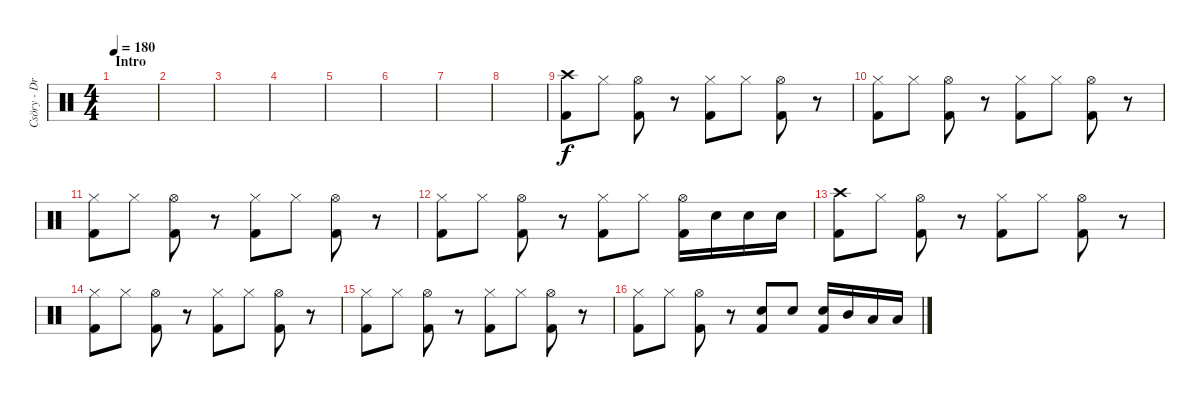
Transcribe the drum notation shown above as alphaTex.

\track ("Csöry - DrumZ" "Csöry - Dr") {instrument percussion}
\staff {score}
\articulation defaults
\ts (4 4)
\section ("" "Intro")
\tempo 180
\clef neutral
\ks c
|
|
|
|
|
|
|
|
("Crash high (hit)" "Kick (hit) 2").8 "Hi-Hat (closed)".8 ("Hi-Hat (open)" "Kick (hit) 2").8 r.8 ("Hi-Hat (closed)" "Kick (hit) 2").8 "Hi-Hat (closed)".8 ("Hi-Hat (open)" "Kick (hit) 2").8 r.8 |
("Hi-Hat (closed)" "Kick (hit) 2").8 "Hi-Hat (closed)".8 ("Hi-Hat (open)" "Kick (hit) 2").8 r.8 ("Hi-Hat (closed)" "Kick (hit) 2").8 "Hi-Hat (closed)".8 ("Hi-Hat (open)" "Kick (hit) 2").8 r.8 |
("Hi-Hat (closed)" "Kick (hit) 2").8 "Hi-Hat (closed)".8 ("Hi-Hat (open)" "Kick (hit) 2").8 r.8 ("Hi-Hat (closed)" "Kick (hit) 2").8 "Hi-Hat (closed)".8 ("Hi-Hat (open)" "Kick (hit) 2").8 r.8 |
("Hi-Hat (closed)" "Kick (hit) 2").8 "Hi-Hat (closed)".8 ("Hi-Hat (open)" "Kick (hit) 2").8 r.8 ("Hi-Hat (closed)" "Kick (hit) 2").8 "Hi-Hat (closed)".8 ("Hi-Hat (open)" "Kick (hit) 2").16 "Snare (hit) 2".16 "Snare (hit) 2".16 "Snare (hit) 2".16 |
("Crash high (hit)" "Kick (hit) 2").8 "Hi-Hat (closed)".8 ("Hi-Hat (open)" "Kick (hit) 2").8 r.8 ("Hi-Hat (closed)" "Kick (hit) 2").8 "Hi-Hat (closed)".8 ("Hi-Hat (open)" "Kick (hit) 2").8 r.8 |
("Hi-Hat (closed)" "Kick (hit) 2").8 "Hi-Hat (closed)".8 ("Hi-Hat (open)" "Kick (hit) 2").8 r.8 ("Hi-Hat (closed)" "Kick (hit) 2").8 "Hi-Hat (closed)".8 ("Hi-Hat (open)" "Kick (hit) 2").8 r.8 |
("Hi-Hat (closed)" "Kick (hit) 2").8 "Hi-Hat (closed)".8 ("Hi-Hat (open)" "Kick (hit) 2").8 r.8 ("Hi-Hat (closed)" "Kick (hit) 2").8 "Hi-Hat (closed)".8 ("Hi-Hat (open)" "Kick (hit) 2").8 r.8 |
("Hi-Hat (closed)" "Kick (hit) 2").8 "Hi-Hat (closed)".8 ("Hi-Hat (open)" "Kick (hit) 2").8 r.8 ("Snare (hit) 2" "Kick (hit) 2").8 "Snare (hit) 2".8 ("Snare (hit) 2" "Kick (hit) 2").16 "Mid Tom (hit)".16 "Low Tom (hit)".16 "Low Floor Tom (hit)".16
